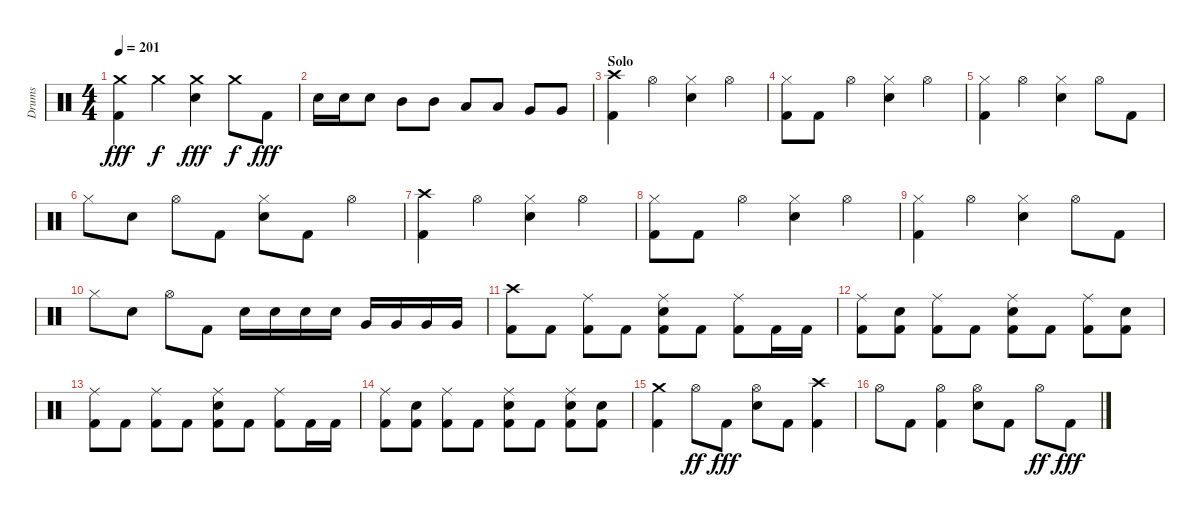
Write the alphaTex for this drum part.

\track ("Drums" "Drums") {instrument percussion}
\staff {score}
\articulation defaults
\ts (4 4)
\tempo 201
\clef neutral
\ks aminor
("Kick (hit) 2" "Crash medium (hit)").4{dy fff} "Crash medium (hit)".4{dy f} ("Crash medium (hit)" "Snare (hit) 2").4{dy fff} "Crash medium (hit)".8{dy f} "Kick (hit) 2".8{dy fff} |
"Snare (hit) 2".16 "Snare (hit) 2".16 "Snare (hit) 2".8 "Mid Tom (hit)".8 "Mid Tom (hit)".8 "Low Tom (hit)".8 "Low Tom (hit)".8 "Very Low Tom (hit)".8 "Very Low Tom (hit)".8 |
\section ("" "Solo")
("Kick (hit) 2" "Crash high (hit)").4 "Hi-Hat (open)".4 ("Snare (hit) 2" "Hi-Hat (closed)").4 "Hi-Hat (open)".4 |
("Kick (hit) 2" "Hi-Hat (closed)").8 "Kick (hit) 2".8 "Hi-Hat (open)".4 ("Snare (hit) 2" "Hi-Hat (closed)").4 "Hi-Hat (open)".4 |
("Kick (hit) 2" "Hi-Hat (closed)").4 "Hi-Hat (open)".4 ("Snare (hit) 2" "Hi-Hat (closed)").4 "Hi-Hat (open)".8 "Kick (hit) 2".8 |
"Hi-Hat (closed)".8 "Snare (hit) 2".8 "Hi-Hat (open)".8 "Kick (hit) 2".8 ("Snare (hit) 2" "Hi-Hat (closed)").8 "Kick (hit) 2".8 "Hi-Hat (open)".4 |
("Kick (hit) 2" "Crash high (hit)").4 "Hi-Hat (open)".4 ("Hi-Hat (closed)" "Snare (hit) 2").4 "Hi-Hat (open)".4 |
("Hi-Hat (closed)" "Kick (hit) 2").8 "Kick (hit) 2".8 "Hi-Hat (open)".4 ("Snare (hit) 2" "Hi-Hat (closed)").4 "Hi-Hat (open)".4 |
("Hi-Hat (closed)" "Kick (hit) 2").4 "Hi-Hat (open)".4 ("Hi-Hat (closed)" "Snare (hit) 2").4 "Hi-Hat (open)".8 "Kick (hit) 2".8 |
"Hi-Hat (closed)".8 "Snare (hit) 2".8 "Hi-Hat (open)".8 "Kick (hit) 2".8 "Snare (hit) 2".16 "Snare (hit) 2".16 "Snare (hit) 2".16 "Snare (hit) 2".16 "Very Low Tom (hit)".16 "Very Low Tom (hit)".16 "Very Low Tom (hit)".16 "Very Low Tom (hit)".16 |
("Kick (hit) 2" "Crash high (hit)").8 "Kick (hit) 2".8 ("Kick (hit) 2" "Ride (middle)").8 "Kick (hit) 2".8 ("Snare (hit) 2" "Kick (hit) 2" "Ride (middle)").8 "Kick (hit) 2".8 ("Kick (hit) 2" "Ride (middle)").8 "Kick (hit) 2".16 "Kick (hit) 2".16 |
("Kick (hit) 2" "Ride (middle)").8 ("Kick (hit) 2" "Snare (hit) 2").8 ("Ride (middle)" "Kick (hit) 2").8 "Kick (hit) 2".8 ("Kick (hit) 2" "Snare (hit) 2" "Ride (middle)").8 "Kick (hit) 2".8 ("Kick (hit) 2" "Ride (middle)").8 ("Kick (hit) 2" "Snare (hit) 2").8 |
("Ride (middle)" "Kick (hit) 2").8 "Kick (hit) 2".8 ("Kick (hit) 2" "Ride (middle)").8 "Kick (hit) 2".8 ("Kick (hit) 2" "Snare (hit) 2" "Ride (middle)").8 "Kick (hit) 2".8 ("Kick (hit) 2" "Ride (middle)").8 "Kick (hit) 2".16 "Kick (hit) 2".16 |
("Ride (middle)" "Kick (hit) 2").8 ("Kick (hit) 2" "Snare (hit) 2").8 ("Kick (hit) 2" "Ride (middle)").8 "Kick (hit) 2".8 ("Kick (hit) 2" "Snare (hit) 2" "Ride (middle)").8 "Kick (hit) 2".8 ("Kick (hit) 2" "Ride (middle)" "Snare (hit) 2").8 ("Snare (hit) 2" "Kick (hit) 2").8 |
("Kick (hit) 2" "Crash medium (hit)").4 "Hi-Hat (open)".8{dy ff} "Kick (hit) 2".8{dy fff} ("Hi-Hat (open)" "Snare (hit) 2").8 "Kick (hit) 2".8 ("Kick (hit) 2" "Crash high (hit)").4 |
"Hi-Hat (open)".8 "Kick (hit) 2".8 ("Hi-Hat (open)" "Kick (hit) 2").4 ("Hi-Hat (open)" "Snare (hit) 2").8 "Kick (hit) 2".8 "Hi-Hat (open)".8{dy ff} "Kick (hit) 2".8{dy fff}
